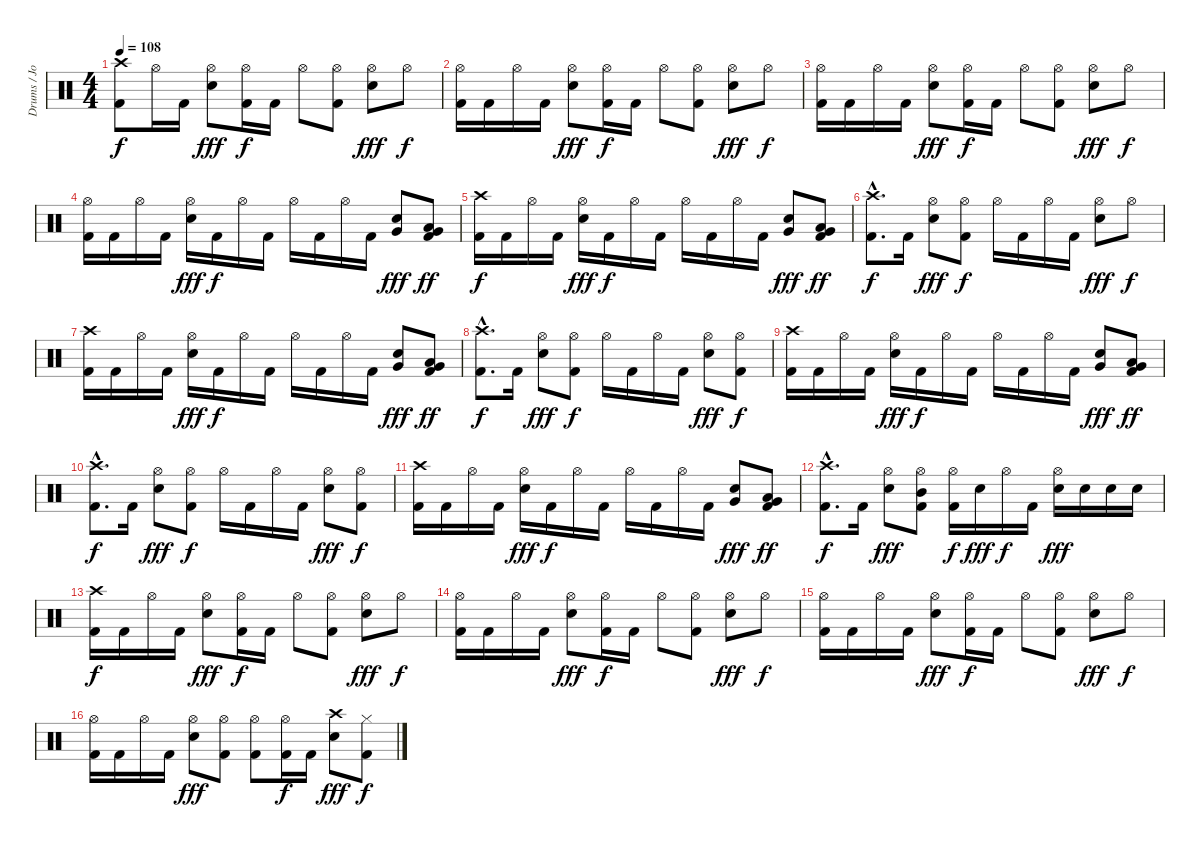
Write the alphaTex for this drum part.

\track ("Drums / Jon Wysocki" "Drums / Jo") {instrument percussion}
\staff {score}
\articulation defaults
\ts (4 4)
\tempo 108
\clef neutral
\ks c
("Crash high (hit)" "Kick (hit) 2").8{dy f} "Hi-Hat (open)".16 "Kick (hit) 2".16 ("Hi-Hat (open)" "Electric Snare (hit)").8{dy fff} ("Hi-Hat (open)" "Kick (hit) 2").16{dy f} "Kick (hit) 2".16 "Hi-Hat (open)".8 ("Hi-Hat (open)" "Kick (hit) 2").8 ("Hi-Hat (open)" "Electric Snare (hit)").8{dy fff} "Hi-Hat (open)".8{dy f} |
("Hi-Hat (open)" "Kick (hit) 2").16 "Kick (hit) 2".16 "Hi-Hat (open)".16 "Kick (hit) 2".16 ("Hi-Hat (open)" "Electric Snare (hit)").8{dy fff} ("Hi-Hat (open)" "Kick (hit) 2").16{dy f} "Kick (hit) 2".16 "Hi-Hat (open)".8 ("Hi-Hat (open)" "Kick (hit) 2").8 ("Hi-Hat (open)" "Electric Snare (hit)").8{dy fff} "Hi-Hat (open)".8{dy f} |
("Hi-Hat (open)" "Kick (hit) 2").16 "Kick (hit) 2".16 "Hi-Hat (open)".16 "Kick (hit) 2".16 ("Hi-Hat (open)" "Electric Snare (hit)").8{dy fff} ("Hi-Hat (open)" "Kick (hit) 2").16{dy f} "Kick (hit) 2".16 "Hi-Hat (open)".8 ("Hi-Hat (open)" "Kick (hit) 2").8 ("Hi-Hat (open)" "Electric Snare (hit)").8{dy fff} "Hi-Hat (open)".8{dy f} |
("Hi-Hat (open)" "Kick (hit) 2").16 "Kick (hit) 2".16 "Hi-Hat (open)".16 "Kick (hit) 2".16 ("Hi-Hat (open)" "Electric Snare (hit)").16{dy fff} "Kick (hit) 2".16{dy f} "Hi-Hat (open)".16 "Kick (hit) 2".16 "Hi-Hat (open)".16 "Kick (hit) 2".16 "Hi-Hat (open)".16 "Kick (hit) 2".16 ("Electric Snare (hit)" "Very Low Tom (hit)").8{dy fff} ("Low Tom (hit)" "Very Low Tom (hit)" "Kick (hit) 2").8{dy ff} |
("Crash high (hit)" "Kick (hit) 2").16{dy f} "Kick (hit) 2".16 "Hi-Hat (open)".16 "Kick (hit) 2".16 ("Hi-Hat (open)" "Electric Snare (hit)").16{dy fff} "Kick (hit) 2".16{dy f} "Hi-Hat (open)".16 "Kick (hit) 2".16 "Hi-Hat (open)".16 "Kick (hit) 2".16 "Hi-Hat (open)".16 "Kick (hit) 2".16 ("Electric Snare (hit)" "Very Low Tom (hit)").8{dy fff} ("Low Tom (hit)" "Very Low Tom (hit)" "Kick (hit) 2").8{dy ff} |
("Crash high (hit)"{hac} "Kick (hit) 2"{hac}).8{d dy f} "Kick (hit) 2".16 ("Hi-Hat (open)" "Electric Snare (hit)").8{dy fff} ("Hi-Hat (open)" "Kick (hit) 2").8{dy f} "Hi-Hat (open)".16 "Kick (hit) 2".16 "Hi-Hat (open)".16 "Kick (hit) 2".16 ("Hi-Hat (open)" "Electric Snare (hit)").8{dy fff} "Hi-Hat (open)".8{dy f} |
("Crash high (hit)" "Kick (hit) 2").16 "Kick (hit) 2".16 "Hi-Hat (open)".16 "Kick (hit) 2".16 ("Hi-Hat (open)" "Electric Snare (hit)").16{dy fff} "Kick (hit) 2".16{dy f} "Hi-Hat (open)".16 "Kick (hit) 2".16 "Hi-Hat (open)".16 "Kick (hit) 2".16 "Hi-Hat (open)".16 "Kick (hit) 2".16 ("Electric Snare (hit)" "Very Low Tom (hit)").8{dy fff} ("Low Tom (hit)" "Very Low Tom (hit)" "Kick (hit) 2").8{dy ff} |
("Crash high (hit)"{hac} "Kick (hit) 2"{hac}).8{d dy f} "Kick (hit) 2".16 ("Hi-Hat (open)" "Electric Snare (hit)").8{dy fff} ("Hi-Hat (open)" "Kick (hit) 2").8{dy f} "Hi-Hat (open)".16 "Kick (hit) 2".16 "Hi-Hat (open)".16 "Kick (hit) 2".16 ("Hi-Hat (open)" "Electric Snare (hit)").8{dy fff} ("Hi-Hat (open)" "Kick (hit) 2").8{dy f} |
("Crash high (hit)" "Kick (hit) 2").16 "Kick (hit) 2".16 "Hi-Hat (open)".16 "Kick (hit) 2".16 ("Hi-Hat (open)" "Electric Snare (hit)").16{dy fff} "Kick (hit) 2".16{dy f} "Hi-Hat (open)".16 "Kick (hit) 2".16 "Hi-Hat (open)".16 "Kick (hit) 2".16 "Hi-Hat (open)".16 "Kick (hit) 2".16 ("Electric Snare (hit)" "Very Low Tom (hit)").8{dy fff} ("Low Tom (hit)" "Very Low Tom (hit)" "Kick (hit) 2").8{dy ff} |
("Crash high (hit)"{hac} "Kick (hit) 2"{hac}).8{d dy f} "Kick (hit) 2".16 ("Hi-Hat (open)" "Electric Snare (hit)").8{dy fff} ("Hi-Hat (open)" "Kick (hit) 2").8{dy f} "Hi-Hat (open)".16 "Kick (hit) 2".16 "Hi-Hat (open)".16 "Kick (hit) 2".16 ("Hi-Hat (open)" "Electric Snare (hit)").8{dy fff} ("Hi-Hat (open)" "Kick (hit) 2").8{dy f} |
("Crash high (hit)" "Kick (hit) 2").16 "Kick (hit) 2".16 "Hi-Hat (open)".16 "Kick (hit) 2".16 ("Hi-Hat (open)" "Electric Snare (hit)").16{dy fff} "Kick (hit) 2".16{dy f} "Hi-Hat (open)".16 "Kick (hit) 2".16 "Hi-Hat (open)".16 "Kick (hit) 2".16 "Hi-Hat (open)".16 "Kick (hit) 2".16 ("Electric Snare (hit)" "Very Low Tom (hit)").8{dy fff} ("Low Tom (hit)" "Very Low Tom (hit)" "Kick (hit) 2").8{dy ff} |
("Crash high (hit)"{hac} "Kick (hit) 2"{hac}).8{d dy f} "Kick (hit) 2".16 ("Hi-Hat (open)" "Electric Snare (hit)").8{dy fff} ("Hi-Hat (open)" "Mid Tom (hit)" "Kick (hit) 2").8 ("Hi-Hat (open)" "Kick (hit) 2").16{dy f} "Electric Snare (hit)".16{dy fff} "Hi-Hat (open)".16{dy f} "Kick (hit) 2".16 ("Hi-Hat (open)" "Electric Snare (hit)").16{dy fff} "Electric Snare (hit)".16 "Electric Snare (hit)".16 "Electric Snare (hit)".16 |
("Crash high (hit)" "Kick (hit) 2").16{dy f} "Kick (hit) 2".16 "Hi-Hat (open)".16 "Kick (hit) 2".16 ("Hi-Hat (open)" "Electric Snare (hit)").8{dy fff} ("Hi-Hat (open)" "Kick (hit) 2").16{dy f} "Kick (hit) 2".16 "Hi-Hat (open)".8 ("Hi-Hat (open)" "Kick (hit) 2").8 ("Hi-Hat (open)" "Electric Snare (hit)").8{dy fff} "Hi-Hat (open)".8{dy f} |
("Hi-Hat (open)" "Kick (hit) 2").16 "Kick (hit) 2".16 "Hi-Hat (open)".16 "Kick (hit) 2".16 ("Hi-Hat (open)" "Electric Snare (hit)").8{dy fff} ("Hi-Hat (open)" "Kick (hit) 2").16{dy f} "Kick (hit) 2".16 "Hi-Hat (open)".8 ("Hi-Hat (open)" "Kick (hit) 2").8 ("Hi-Hat (open)" "Electric Snare (hit)").8{dy fff} "Hi-Hat (open)".8{dy f} |
("Hi-Hat (open)" "Kick (hit) 2").16 "Kick (hit) 2".16 "Hi-Hat (open)".16 "Kick (hit) 2".16 ("Hi-Hat (open)" "Electric Snare (hit)").8{dy fff} ("Hi-Hat (open)" "Kick (hit) 2").16{dy f} "Kick (hit) 2".16 "Hi-Hat (open)".8 ("Hi-Hat (open)" "Kick (hit) 2").8 ("Hi-Hat (open)" "Electric Snare (hit)").8{dy fff} "Hi-Hat (open)".8{dy f} |
("Hi-Hat (open)" "Kick (hit) 2").16 "Kick (hit) 2".16 "Hi-Hat (open)".16 "Kick (hit) 2".16 ("Hi-Hat (open)" "Electric Snare (hit)").8{dy fff} ("Hi-Hat (open)" "Kick (hit) 2").8 ("Hi-Hat (open)" "Kick (hit) 2").8 ("Hi-Hat (open)" "Kick (hit) 2").16{dy f} "Kick (hit) 2".16 ("Crash high (hit)" "Electric Snare (hit)").8{dy fff} ("Hi-Hat (closed)" "Kick (hit) 2").8{dy f}
